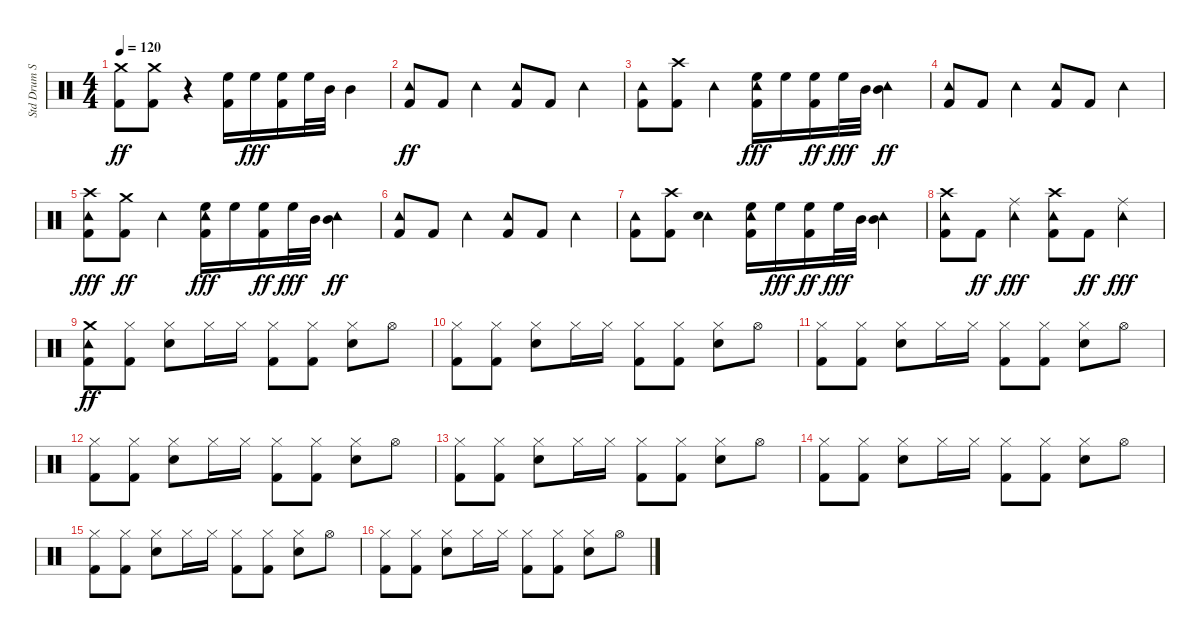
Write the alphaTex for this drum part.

\track ("Std Drum Set 1" "Std Drum S") {instrument percussion}
\staff {score}
\articulation defaults
\ts (4 4)
\tempo 120
\clef neutral
\ks c
("Crash medium (hit)" "Kick (hit) 2").8{dy ff} ("Crash medium (hit)" "Kick (hit) 2").8 r.4 ("High Floor Tom (hit)" "Kick (hit) 2").16 "High Floor Tom (hit)".16{dy fff} ("Kick (hit) 2" "High Floor Tom (hit)").16 "High Floor Tom (hit)".32 "Mid Tom (hit)".32 "Mid Tom (hit)".4 |
("Tambourine (hit)" "Kick (hit) 2").8{dy ff} "Kick (hit) 2".8 "Tambourine (hit)".4 ("Tambourine (hit)" "Kick (hit) 2").8 "Kick (hit) 2".8 "Tambourine (hit)".4 |
("Tambourine (hit)" "Kick (hit) 2").8 ("Crash high (hit)" "Kick (hit) 2").8 "Tambourine (hit)".4 ("Kick (hit) 2" "Tambourine (hit)" "High Floor Tom (hit)").16{dy fff} "High Floor Tom (hit)".16 ("High Floor Tom (hit)" "Kick (hit) 2").16{dy ff} "High Floor Tom (hit)".32{dy fff} "Mid Tom (hit)".32 ("Mid Tom (hit)" "Tambourine (hit)").4{dy ff} |
("Tambourine (hit)" "Kick (hit) 2").8 "Kick (hit) 2".8 "Tambourine (hit)".4 ("Tambourine (hit)" "Kick (hit) 2").8 "Kick (hit) 2".8 "Tambourine (hit)".4 |
("Tambourine (hit)" "Kick (hit) 2" "Crash high (hit)").8{dy fff} ("Crash medium (hit)" "Kick (hit) 2").8{dy ff} "Tambourine (hit)".4 ("Tambourine (hit)" "Kick (hit) 2" "High Floor Tom (hit)").16{dy fff} "High Floor Tom (hit)".16 ("High Floor Tom (hit)" "Kick (hit) 2").16{dy ff} "High Floor Tom (hit)".32{dy fff} "Mid Tom (hit)".32 ("Mid Tom (hit)" "Tambourine (hit)").4{dy ff} |
("Kick (hit) 2" "Tambourine (hit)").8 "Kick (hit) 2".8 "Tambourine (hit)".4 ("Kick (hit) 2" "Tambourine (hit)").8 "Kick (hit) 2".8 "Tambourine (hit)".4 |
("Kick (hit) 2" "Tambourine (hit)").8 ("Crash high (hit)" "Kick (hit) 2").8 ("Tambourine (hit)" "Snare (hit) 2").4 ("Tambourine (hit)" "High Floor Tom (hit)" "Kick (hit) 2").16 "High Floor Tom (hit)".16{dy fff} ("High Floor Tom (hit)" "Kick (hit) 2").16{dy ff} "High Floor Tom (hit)".32{dy fff} "Mid Tom (hit)".32 ("Tambourine (hit)" "Mid Tom (hit)").4 |
("Tambourine (hit)" "Kick (hit) 2" "Crash high (hit)").8 "Kick (hit) 2".8{dy ff} ("Tambourine (hit)" "Ride (middle)").4{dy fff} ("Kick (hit) 2" "Tambourine (hit)" "Crash high (hit)").8 "Kick (hit) 2".8{dy ff} ("Tambourine (hit)" "Ride (middle)").4{dy fff} |
("Crash medium (hit)" "Tambourine (hit)" "Kick (hit) 2").8{dy ff} ("Kick (hit) 2" "Hi-Hat (closed)").8 ("Hi-Hat (closed)" "Snare (hit) 2").8 "Hi-Hat (closed)".16 "Hi-Hat (closed)".16 ("Hi-Hat (closed)" "Kick (hit) 2").8 ("Hi-Hat (closed)" "Kick (hit) 2").8 ("Hi-Hat (closed)" "Snare (hit) 2").8 "Hi-Hat (open)".8 |
("Hi-Hat (closed)" "Kick (hit) 2").8 ("Kick (hit) 2" "Hi-Hat (closed)").8 ("Hi-Hat (closed)" "Snare (hit) 2").8 "Hi-Hat (closed)".16 "Hi-Hat (closed)".16 ("Kick (hit) 2" "Hi-Hat (closed)").8 ("Hi-Hat (closed)" "Kick (hit) 2").8 ("Hi-Hat (closed)" "Snare (hit) 2").8 "Hi-Hat (open)".8 |
("Hi-Hat (closed)" "Kick (hit) 2").8 ("Kick (hit) 2" "Hi-Hat (closed)").8 ("Hi-Hat (closed)" "Snare (hit) 2").8 "Hi-Hat (closed)".16 "Hi-Hat (closed)".16 ("Hi-Hat (closed)" "Kick (hit) 2").8 ("Hi-Hat (closed)" "Kick (hit) 2").8 ("Hi-Hat (closed)" "Snare (hit) 2").8 "Hi-Hat (open)".8 |
("Hi-Hat (closed)" "Kick (hit) 2").8 ("Hi-Hat (closed)" "Kick (hit) 2").8 ("Hi-Hat (closed)" "Snare (hit) 2").8 "Hi-Hat (closed)".16 "Hi-Hat (closed)".16 ("Hi-Hat (closed)" "Kick (hit) 2").8 ("Kick (hit) 2" "Hi-Hat (closed)").8 ("Hi-Hat (closed)" "Snare (hit) 2").8 "Hi-Hat (open)".8 |
("Kick (hit) 2" "Hi-Hat (closed)").8 ("Kick (hit) 2" "Hi-Hat (closed)").8 ("Hi-Hat (closed)" "Snare (hit) 2").8 "Hi-Hat (closed)".16 "Hi-Hat (closed)".16 ("Hi-Hat (closed)" "Kick (hit) 2").8 ("Hi-Hat (closed)" "Kick (hit) 2").8 ("Snare (hit) 2" "Hi-Hat (closed)").8 "Hi-Hat (open)".8 |
("Hi-Hat (closed)" "Kick (hit) 2").8 ("Hi-Hat (closed)" "Kick (hit) 2").8 ("Hi-Hat (closed)" "Snare (hit) 2").8 "Hi-Hat (closed)".16 "Hi-Hat (closed)".16 ("Hi-Hat (closed)" "Kick (hit) 2").8 ("Kick (hit) 2" "Hi-Hat (closed)").8 ("Hi-Hat (closed)" "Snare (hit) 2").8 "Hi-Hat (open)".8 |
("Hi-Hat (closed)" "Kick (hit) 2").8 ("Hi-Hat (closed)" "Kick (hit) 2").8 ("Hi-Hat (closed)" "Snare (hit) 2").8 "Hi-Hat (closed)".16 "Hi-Hat (closed)".16 ("Hi-Hat (closed)" "Kick (hit) 2").8 ("Hi-Hat (closed)" "Kick (hit) 2").8 ("Snare (hit) 2" "Hi-Hat (closed)").8 "Hi-Hat (open)".8 |
("Hi-Hat (closed)" "Kick (hit) 2").8 ("Hi-Hat (closed)" "Kick (hit) 2").8 ("Hi-Hat (closed)" "Snare (hit) 2").8 "Hi-Hat (closed)".16 "Hi-Hat (closed)".16 ("Kick (hit) 2" "Hi-Hat (closed)").8 ("Kick (hit) 2" "Hi-Hat (closed)").8 ("Hi-Hat (closed)" "Snare (hit) 2").8 "Hi-Hat (open)".8
